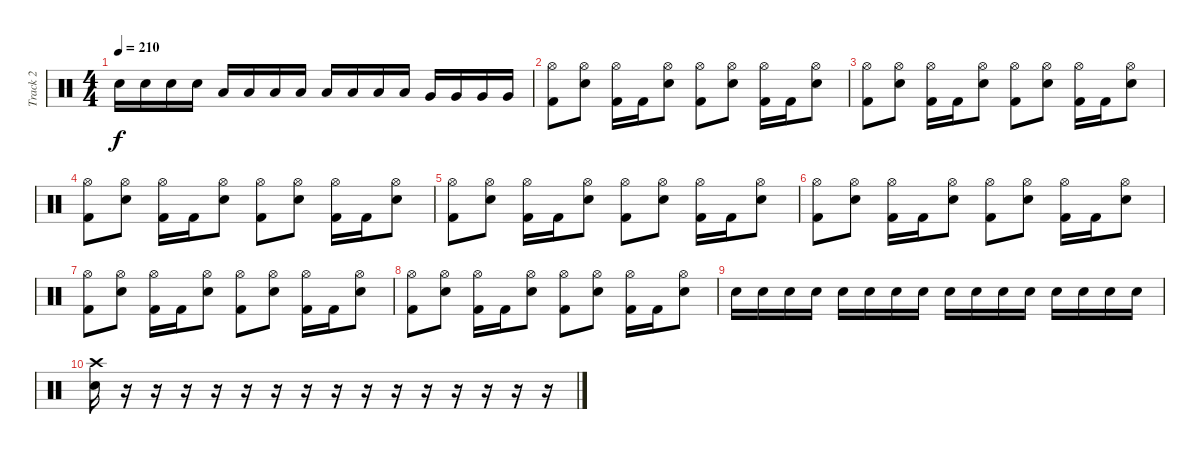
\track ("Track 2" "Track 2") {instrument percussion}
\staff {score}
\articulation defaults
\ts (4 4)
\tempo 210
\clef neutral
\ks c "Snare (hit) 2".16{dy f} "Snare (hit) 2".16 "Snare (hit) 2".16 "Snare (hit) 2".16 "Low Tom (hit)".16 "Low Tom (hit)".16 "Low Tom (hit)".16 "Low Tom (hit)".16 "Low Floor Tom (hit)".16 "Low Floor Tom (hit)".16 "Low Floor Tom (hit)".16 "Low Floor Tom (hit)".16 "Very Low Tom (hit)".16 "Very Low Tom (hit)".16 "Very Low Tom (hit)".16 "Very Low Tom (hit)".16
|
("Hi-Hat (open)" "Kick (hit) 2").8 ("Hi-Hat (open)" "Snare (hit) 2").8 ("Hi-Hat (open)" "Kick (hit) 2").16 "Kick (hit) 2".16 ("Hi-Hat (open)" "Snare (hit) 2").8 ("Hi-Hat (open)" "Kick (hit) 2").8 ("Hi-Hat (open)" "Snare (hit) 2").8 ("Hi-Hat (open)" "Kick (hit) 2").16 "Kick (hit) 2".16 ("Hi-Hat (open)" "Snare (hit) 2").8 |
("Hi-Hat (open)" "Kick (hit) 2").8 ("Hi-Hat (open)" "Snare (hit) 2").8 ("Hi-Hat (open)" "Kick (hit) 2").16 "Kick (hit) 2".16 ("Hi-Hat (open)" "Snare (hit) 2").8 ("Hi-Hat (open)" "Kick (hit) 2").8 ("Hi-Hat (open)" "Snare (hit) 2").8 ("Hi-Hat (open)" "Kick (hit) 2").16 "Kick (hit) 2".16 ("Hi-Hat (open)" "Snare (hit) 2").8 |
("Hi-Hat (open)" "Kick (hit) 2").8 ("Hi-Hat (open)" "Snare (hit) 2").8 ("Hi-Hat (open)" "Kick (hit) 2").16 "Kick (hit) 2".16 ("Hi-Hat (open)" "Snare (hit) 2").8 ("Hi-Hat (open)" "Kick (hit) 2").8 ("Hi-Hat (open)" "Snare (hit) 2").8 ("Hi-Hat (open)" "Kick (hit) 2").16 "Kick (hit) 2".16 ("Hi-Hat (open)" "Snare (hit) 2").8 |
("Hi-Hat (open)" "Kick (hit) 2").8 ("Hi-Hat (open)" "Snare (hit) 2").8 ("Hi-Hat (open)" "Kick (hit) 2").16 "Kick (hit) 2".16 ("Hi-Hat (open)" "Snare (hit) 2").8 ("Hi-Hat (open)" "Kick (hit) 2").8 ("Hi-Hat (open)" "Snare (hit) 2").8 ("Hi-Hat (open)" "Kick (hit) 2").16 "Kick (hit) 2".16 ("Hi-Hat (open)" "Snare (hit) 2").8 |
("Hi-Hat (open)" "Kick (hit) 2").8 ("Hi-Hat (open)" "Snare (hit) 2").8 ("Hi-Hat (open)" "Kick (hit) 2").16 "Kick (hit) 2".16 ("Hi-Hat (open)" "Snare (hit) 2").8 ("Hi-Hat (open)" "Kick (hit) 2").8 ("Hi-Hat (open)" "Snare (hit) 2").8 ("Hi-Hat (open)" "Kick (hit) 2").16 "Kick (hit) 2".16 ("Hi-Hat (open)" "Snare (hit) 2").8 |
("Hi-Hat (open)" "Kick (hit) 2").8 ("Hi-Hat (open)" "Snare (hit) 2").8 ("Hi-Hat (open)" "Kick (hit) 2").16 "Kick (hit) 2".16 ("Hi-Hat (open)" "Snare (hit) 2").8 ("Hi-Hat (open)" "Kick (hit) 2").8 ("Hi-Hat (open)" "Snare (hit) 2").8 ("Hi-Hat (open)" "Kick (hit) 2").16 "Kick (hit) 2".16 ("Hi-Hat (open)" "Snare (hit) 2").8 |
("Hi-Hat (open)" "Kick (hit) 2").8 ("Hi-Hat (open)" "Snare (hit) 2").8 ("Hi-Hat (open)" "Kick (hit) 2").16 "Kick (hit) 2".16 ("Hi-Hat (open)" "Snare (hit) 2").8 ("Hi-Hat (open)" "Kick (hit) 2").8 ("Hi-Hat (open)" "Snare (hit) 2").8 ("Hi-Hat (open)" "Kick (hit) 2").16 "Kick (hit) 2".16 ("Hi-Hat (open)" "Snare (hit) 2").8 |
"Snare (hit) 2".16 "Snare (hit) 2".16 "Snare (hit) 2".16 "Snare (hit) 2".16 "Snare (hit) 2".16 "Snare (hit) 2".16 "Snare (hit) 2".16 "Snare (hit) 2".16 "Snare (hit) 2".16 "Snare (hit) 2".16 "Snare (hit) 2".16 "Snare (hit) 2".16 "Snare (hit) 2".16 "Snare (hit) 2".16 "Snare (hit) 2".16 "Snare (hit) 2".16 |
("Crash high (hit)" "Snare (hit) 2").16 r.16 r.16 r.16 r.16 r.16 r.16 r.16 r.16 r.16 r.16 r.16 r.16 r.16 r.16 r.16
